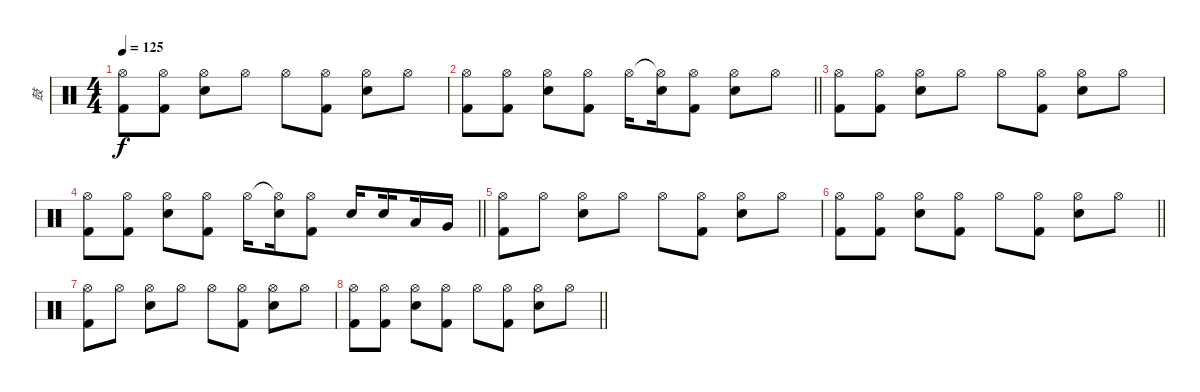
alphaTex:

\track ("鼓" "鼓") {instrument percussion}
\staff {score}
\articulation defaults
\ts (4 4)
\tempo 125
\clef neutral
\ks c
("Hi-Hat (open)" "Kick (hit) 2").8{dy f} ("Hi-Hat (open)" "Kick (hit) 2").8 ("Hi-Hat (open)" "Snare (hit) 2").8 "Hi-Hat (open)".8 "Hi-Hat (open)".8 ("Hi-Hat (open)" "Kick (hit) 2").8 ("Hi-Hat (open)" "Snare (hit) 2").8 "Hi-Hat (open)".8 |
\barLineRight lightlight
("Hi-Hat (open)" "Kick (hit) 2").8 ("Hi-Hat (open)" "Kick (hit) 2").8 ("Hi-Hat (open)" "Snare (hit) 2").8 ("Hi-Hat (open)" "Kick (hit) 2").8 "Hi-Hat (open)".16{beam splitsecondary} ("Hi-Hat (open)"{t} "Snare (hit) 2").16 ("Hi-Hat (open)" "Kick (hit) 2").8 ("Hi-Hat (open)" "Snare (hit) 2").8 "Hi-Hat (open)".8 |
("Hi-Hat (open)" "Kick (hit) 2").8 ("Hi-Hat (open)" "Kick (hit) 2").8 ("Hi-Hat (open)" "Snare (hit) 2").8 "Hi-Hat (open)".8 "Hi-Hat (open)".8 ("Hi-Hat (open)" "Kick (hit) 2").8 ("Hi-Hat (open)" "Snare (hit) 2").8 "Hi-Hat (open)".8 |
\barLineRight lightlight
("Hi-Hat (open)" "Kick (hit) 2").8 ("Hi-Hat (open)" "Kick (hit) 2").8 ("Hi-Hat (open)" "Snare (hit) 2").8 ("Hi-Hat (open)" "Kick (hit) 2").8 "Hi-Hat (open)".16{beam splitsecondary} ("Hi-Hat (open)"{t} "Snare (hit) 2").16 ("Hi-Hat (open)" "Kick (hit) 2").8 "Snare (hit) 2".16{beam splitsecondary} "Snare (hit) 2".16{beam splitsecondary} "Low Tom (hit)".16 "Very Low Tom (hit)".16 |
("Hi-Hat (open)" "Kick (hit) 2").8 "Hi-Hat (open)".8 ("Hi-Hat (open)" "Snare (hit) 2").8 "Hi-Hat (open)".8 "Hi-Hat (open)".8 ("Hi-Hat (open)" "Kick (hit) 2").8 ("Hi-Hat (open)" "Snare (hit) 2").8 "Hi-Hat (open)".8 |
\barLineRight lightlight
("Hi-Hat (open)" "Kick (hit) 2").8 ("Hi-Hat (open)" "Kick (hit) 2").8 ("Hi-Hat (open)" "Snare (hit) 2").8 ("Hi-Hat (open)" "Kick (hit) 2").8 "Hi-Hat (open)".8 ("Hi-Hat (open)" "Kick (hit) 2").8 ("Hi-Hat (open)" "Snare (hit) 2").8 "Hi-Hat (open)".8 |
("Hi-Hat (open)" "Kick (hit) 2").8 "Hi-Hat (open)".8 ("Hi-Hat (open)" "Snare (hit) 2").8 "Hi-Hat (open)".8 "Hi-Hat (open)".8 ("Hi-Hat (open)" "Kick (hit) 2").8 ("Hi-Hat (open)" "Snare (hit) 2").8 "Hi-Hat (open)".8 |
\barLineRight lightlight
("Hi-Hat (open)" "Kick (hit) 2").8 ("Hi-Hat (open)" "Kick (hit) 2").8 ("Hi-Hat (open)" "Snare (hit) 2").8 ("Hi-Hat (open)" "Kick (hit) 2").8 "Hi-Hat (open)".8 ("Hi-Hat (open)" "Kick (hit) 2").8 ("Hi-Hat (open)" "Snare (hit) 2").8 "Hi-Hat (open)".8
